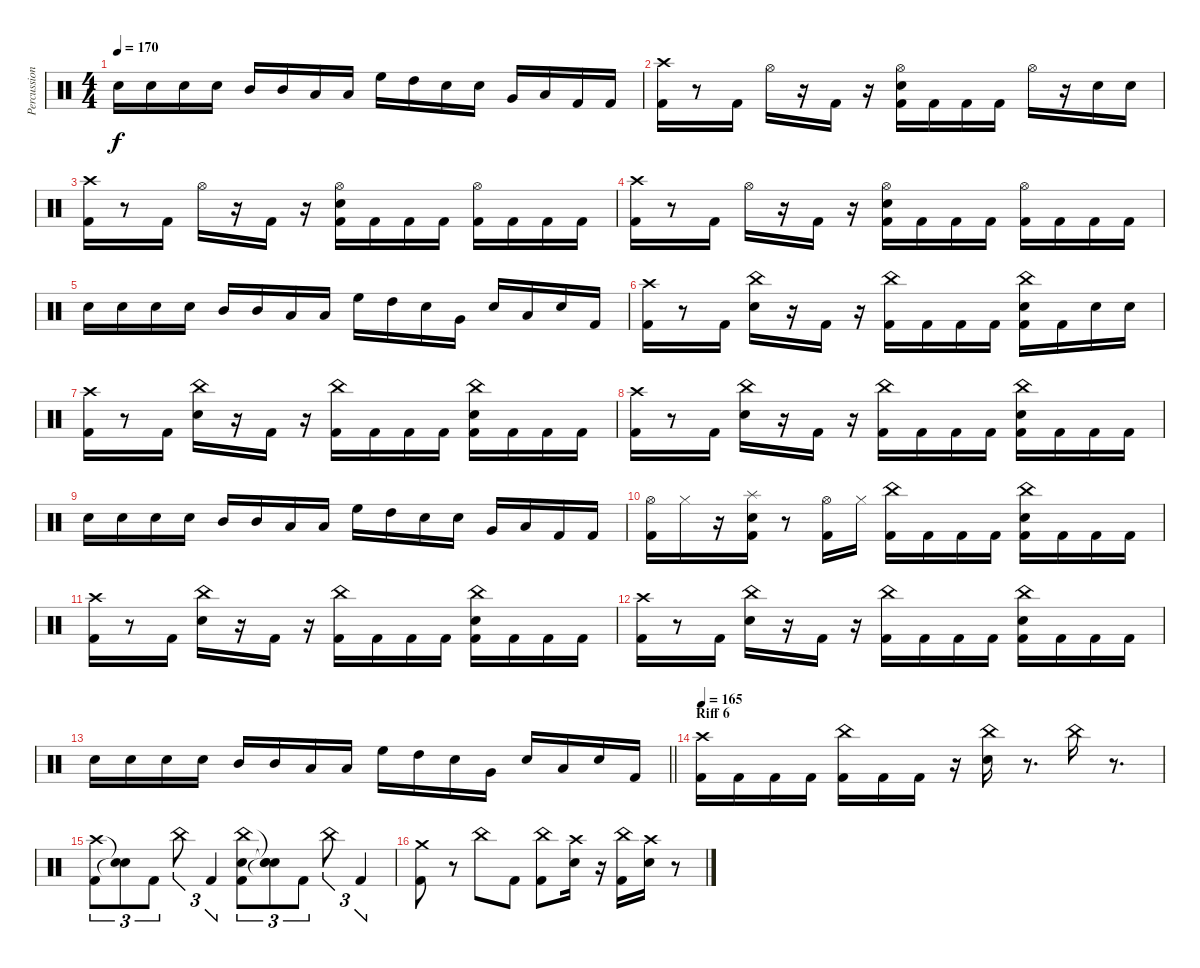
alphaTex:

\track ("Percussion" "Percussion") {instrument percussion}
\staff {score}
\articulation defaults
\ts (4 4)
\tempo 170
\clef neutral
\ks c "Snare (hit) 2".16{dy f} "Snare (hit) 2".16 "Snare (hit) 2".16 "Snare (hit) 2".16 "Mid Tom (hit)".16 "Mid Tom (hit)".16 "Low Tom (hit)".16 "Low Tom (hit)".16 "High Floor Tom (hit)".16 "High Tom (hit)".16 "Snare (hit) 2".16 "Snare (hit) 2".16 "Very Low Tom (hit)".16 "Low Floor Tom (hit)".16 "Kick (hit) 2".16 "Kick (hit) 2".16
|
("Kick (hit) 2" "Crash high (hit)").16 r.8 "Kick (hit) 2".16 "Hi-Hat (open)".16 r.16 "Kick (hit) 2".16 r.16 ("Kick (hit) 2" "Snare (hit) 2" "Hi-Hat (open)").16 "Kick (hit) 2".16 "Kick (hit) 2".16 "Kick (hit) 2".16 "Hi-Hat (open)".16 r.16 "Snare (hit) 2".16 "Snare (hit) 2".16 |
("Kick (hit) 2" "Crash high (hit)").16 r.8 "Kick (hit) 2".16 "Hi-Hat (open)".16 r.16 "Kick (hit) 2".16 r.16 ("Kick (hit) 2" "Snare (hit) 2" "Hi-Hat (open)").16 "Kick (hit) 2".16 "Kick (hit) 2".16 "Kick (hit) 2".16 ("Kick (hit) 2" "Hi-Hat (open)").16 "Kick (hit) 2".16 "Kick (hit) 2".16 "Kick (hit) 2".16 |
("Kick (hit) 2" "Crash high (hit)").16 r.8 "Kick (hit) 2".16 "Hi-Hat (open)".16 r.16 "Kick (hit) 2".16 r.16 ("Kick (hit) 2" "Snare (hit) 2" "Hi-Hat (open)").16 "Kick (hit) 2".16 "Kick (hit) 2".16 "Kick (hit) 2".16 ("Kick (hit) 2" "Hi-Hat (open)").16 "Kick (hit) 2".16 "Kick (hit) 2".16 "Kick (hit) 2".16 |
"Snare (hit) 2".16 "Snare (hit) 2".16 "Snare (hit) 2".16 "Snare (hit) 2".16 "Mid Tom (hit)".16 "Mid Tom (hit)".16 "Low Tom (hit)".16 "Low Tom (hit)".16 "High Floor Tom (hit)".16 "High Tom (hit)".16 "Snare (hit) 2".16 "Very Low Tom (hit)".16 "Snare (hit) 2".16 "Low Floor Tom (hit)".16 "Snare (hit) 2".16 "Kick (hit) 2".16 |
("Kick (hit) 2" "Crash high (hit)").16 r.8 "Kick (hit) 2".16 ("Snare (hit) 2" "China (hit)").16 r.16 "Kick (hit) 2".16 r.16 ("Kick (hit) 2" "China (hit)").16 "Kick (hit) 2".16 "Kick (hit) 2".16 "Kick (hit) 2".16 ("Kick (hit) 2" "Snare (hit) 2" "China (hit)").16 "Kick (hit) 2".16 "Snare (hit) 2".16 "Snare (hit) 2".16 |
("Kick (hit) 2" "Crash high (hit)").16 r.8 "Kick (hit) 2".16 ("Snare (hit) 2" "China (hit)").16 r.16 "Kick (hit) 2".16 r.16 ("Kick (hit) 2" "China (hit)").16 "Kick (hit) 2".16 "Kick (hit) 2".16 "Kick (hit) 2".16 ("Kick (hit) 2" "Snare (hit) 2" "China (hit)").16 "Kick (hit) 2".16 "Kick (hit) 2".16 "Kick (hit) 2".16 |
("Kick (hit) 2" "Crash high (hit)").16 r.8 "Kick (hit) 2".16 ("Snare (hit) 2" "China (hit)").16 r.16 "Kick (hit) 2".16 r.16 ("Kick (hit) 2" "China (hit)").16 "Kick (hit) 2".16 "Kick (hit) 2".16 "Kick (hit) 2".16 ("Kick (hit) 2" "Snare (hit) 2" "China (hit)").16 "Kick (hit) 2".16 "Kick (hit) 2".16 "Kick (hit) 2".16 |
"Snare (hit) 2".16 "Snare (hit) 2".16 "Snare (hit) 2".16 "Snare (hit) 2".16 "Mid Tom (hit)".16 "Mid Tom (hit)".16 "Low Tom (hit)".16 "Low Tom (hit)".16 "High Floor Tom (hit)".16 "High Tom (hit)".16 "Snare (hit) 2".16 "Snare (hit) 2".16 "Very Low Tom (hit)".16 "Low Floor Tom (hit)".16 "Kick (hit) 2".16 "Kick (hit) 2".16 |
("Kick (hit) 2" "Hi-Hat (open)").16 "Hi-Hat (closed)".16 r.16 ("Kick (hit) 2" "Snare (hit) 2" "Splash (hit)").16 r.8 ("Kick (hit) 2" "Hi-Hat (open)").16 "Hi-Hat (closed)".16 ("Kick (hit) 2" "China (hit)").16 "Kick (hit) 2".16 "Kick (hit) 2".16 "Kick (hit) 2".16 ("Kick (hit) 2" "Snare (hit) 2" "China (hit)").16 "Kick (hit) 2".16 "Kick (hit) 2".16 "Kick (hit) 2".16 |
("Kick (hit) 2" "Crash high (hit)").16 r.8 "Kick (hit) 2".16 ("Snare (hit) 2" "China (hit)").16 r.16 "Kick (hit) 2".16 r.16 ("Kick (hit) 2" "China (hit)").16 "Kick (hit) 2".16 "Kick (hit) 2".16 "Kick (hit) 2".16 ("Kick (hit) 2" "Snare (hit) 2" "China (hit)").16 "Kick (hit) 2".16 "Kick (hit) 2".16 "Kick (hit) 2".16 |
("Kick (hit) 2" "Crash high (hit)").16 r.8 "Kick (hit) 2".16 ("Snare (hit) 2" "China (hit)").16 r.16 "Kick (hit) 2".16 r.16 ("Kick (hit) 2" "China (hit)").16 "Kick (hit) 2".16 "Kick (hit) 2".16 "Kick (hit) 2".16 ("Kick (hit) 2" "Snare (hit) 2" "China (hit)").16 "Kick (hit) 2".16 "Kick (hit) 2".16 "Kick (hit) 2".16 |
\barLineRight lightlight "Snare (hit) 2".16 "Snare (hit) 2".16 "Snare (hit) 2".16 "Snare (hit) 2".16 "Mid Tom (hit)".16 "Mid Tom (hit)".16 "Low Tom (hit)".16 "Low Tom (hit)".16 "High Floor Tom (hit)".16 "High Tom (hit)".16 "Snare (hit) 2".16 "Very Low Tom (hit)".16 "Snare (hit) 2".16 "Low Floor Tom (hit)".16 "Snare (hit) 2".16 "Kick (hit) 2".16
|
\section ("" "Riff 6")
\tempo 165
("Kick (hit) 2" "Crash high (hit)").16 "Kick (hit) 2".16 "Kick (hit) 2".16 "Kick (hit) 2".16 ("Kick (hit) 2" "China (hit)").16 "Kick (hit) 2".16 "Kick (hit) 2".16 r.16 ("Snare (hit) 2" "China (hit)").16 r.8{d} "China (hit)".16 r.8{d} |
("Kick (hit) 2" "Crash high (hit)").8{tu (3 2)} ("Snare (hit)"{t} "Snare (hit)"{t}).8{tu (3 2)} "Kick (hit) 2".8{tu (3 2)} "China (hit)".8{tu (3 2)} "Kick (hit) 2".4{tu (3 2)} ("Kick (hit) 2" "Snare (hit) 2" "China (hit)").8{tu (3 2)} ("Snare (hit)"{t} "Snare (hit)"{t} "Snare (hit)"{t}).8{tu (3 2)} "Kick (hit) 2".8{tu (3 2)} "China (hit)".8{tu (3 2)} "Kick (hit) 2".4{tu (3 2)} |
("Kick (hit) 2" "Crash medium (hit)").8 r.8 "China (hit)".8 "Kick (hit) 2".8 ("Kick (hit) 2" "China (hit)").8 ("Snare (hit) 2" "Crash high (hit)").16 r.16 ("Kick (hit) 2" "China (hit)").16 ("Snare (hit) 2" "Crash high (hit)").16 r.8
